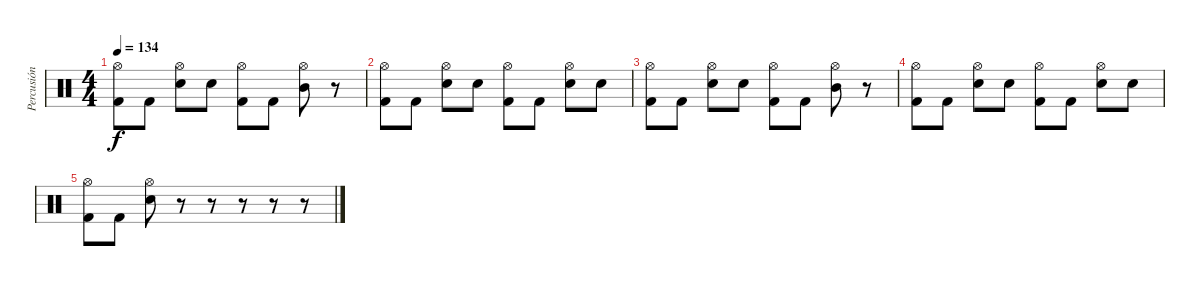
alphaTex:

\track ("Percusión" "Percusión") {instrument percussion}
\staff {score}
\articulation defaults
\ts (4 4)
\tempo 134
\clef neutral
\ks c
("Hi-Hat (open)" "Kick (hit) 2").8{dy f} "Kick (hit) 2".8 ("Hi-Hat (open)" "Snare (hit) 2").8 "Snare (hit) 2".8 ("Hi-Hat (open)" "Kick (hit) 2").8 "Kick (hit) 2".8 ("Hi-Hat (open)" "Mid Tom (hit)").8 r.8 |
("Hi-Hat (open)" "Kick (hit) 2").8 "Kick (hit) 2".8 ("Hi-Hat (open)" "Snare (hit) 2").8 "Snare (hit) 2".8 ("Hi-Hat (open)" "Kick (hit) 2").8 "Kick (hit) 2".8 ("Hi-Hat (open)" "Snare (hit) 2").8 "Snare (hit) 2".8 |
("Hi-Hat (open)" "Kick (hit) 2").8 "Kick (hit) 2".8 ("Hi-Hat (open)" "Snare (hit) 2").8 "Snare (hit) 2".8 ("Hi-Hat (open)" "Kick (hit) 2").8 "Kick (hit) 2".8 ("Hi-Hat (open)" "Mid Tom (hit)").8 r.8 |
("Hi-Hat (open)" "Kick (hit) 2").8 "Kick (hit) 2".8 ("Hi-Hat (open)" "Snare (hit) 2").8 "Snare (hit) 2".8 ("Hi-Hat (open)" "Kick (hit) 2").8 "Kick (hit) 2".8 ("Hi-Hat (open)" "Snare (hit) 2").8 "Snare (hit) 2".8 |
("Hi-Hat (open)" "Kick (hit) 2").8 "Kick (hit) 2".8 ("Hi-Hat (open)" "Snare (hit) 2").8 r.8 r.8 r.8 r.8 r.8
